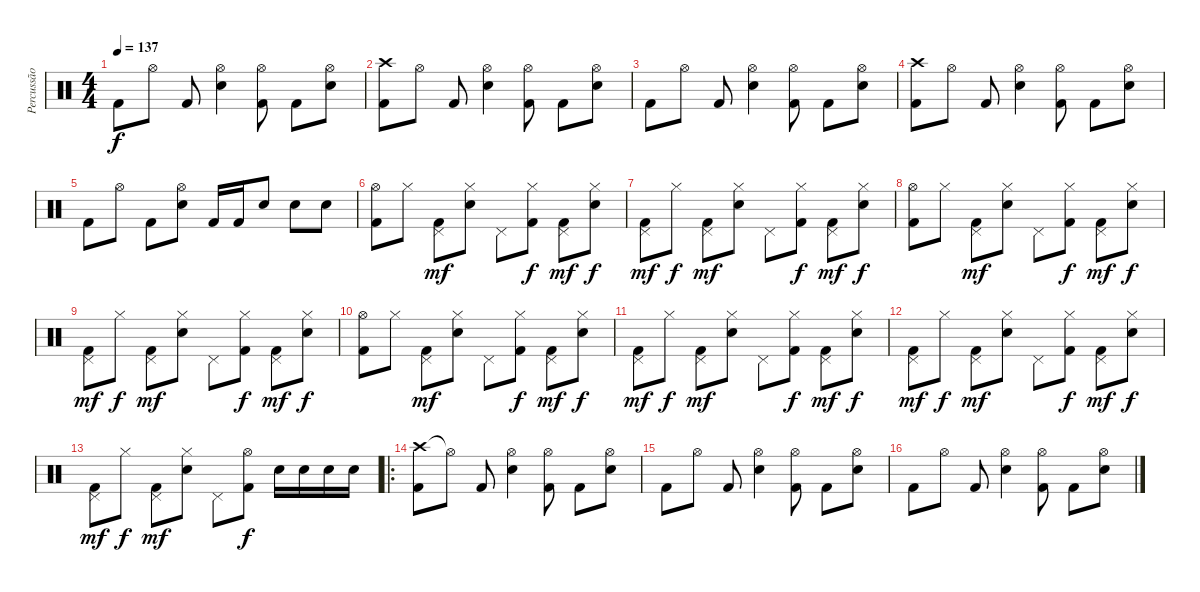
\track ("Percussão" "Percussão") {instrument percussion}
\staff {score}
\articulation defaults
\ts (4 4)
\tempo 137
\clef neutral
\ks c "Kick (hit) 2".8{dy f} "Hi-Hat (open)".8 "Kick (hit) 2".8
("Hi-Hat (open)" "Electric Snare (hit)").4 ("Hi-Hat (open)" "Kick (hit) 2").8 "Kick (hit) 2".8 ("Hi-Hat (open)" "Electric Snare (hit)").8 |
("Crash high (hit)" "Kick (hit) 2").8 "Hi-Hat (open)".8 "Kick (hit) 2".8 ("Hi-Hat (open)" "Electric Snare (hit)").4 ("Hi-Hat (open)" "Kick (hit) 2").8 "Kick (hit) 2".8 ("Hi-Hat (open)" "Electric Snare (hit)").8 |
"Kick (hit) 2".8 "Hi-Hat (open)".8 "Kick (hit) 2".8 ("Hi-Hat (open)" "Electric Snare (hit)").4 ("Hi-Hat (open)" "Kick (hit) 2").8 "Kick (hit) 2".8 ("Hi-Hat (open)" "Electric Snare (hit)").8 |
("Crash high (hit)" "Kick (hit) 2").8 "Hi-Hat (open)".8 "Kick (hit) 2".8 ("Hi-Hat (open)" "Electric Snare (hit)").4 ("Hi-Hat (open)" "Kick (hit) 2").8 "Kick (hit) 2".8 ("Hi-Hat (open)" "Electric Snare (hit)").8 |
"Kick (hit) 2".8 "Hi-Hat (open)".8 "Kick (hit) 2".8 ("Hi-Hat (open)" "Electric Snare (hit)").8 "Kick (hit) 2".16 "Kick (hit) 2".16 "Electric Snare (hit)".8 "Electric Snare (hit)".8 "Electric Snare (hit)".8 |
("Hi-Hat (open)" "Kick (hit) 2").8 "Hi-Hat (closed)".8 ("Pedal Hi-Hat (hit)" "Kick (hit) 2").8{dy mf} ("Hi-Hat (closed)" "Electric Snare (hit)").8 "Pedal Hi-Hat (hit)".8 ("Hi-Hat (closed)" "Kick (hit) 2").8{dy f} ("Pedal Hi-Hat (hit)" "Kick (hit) 2").8{dy mf} ("Hi-Hat (closed)" "Electric Snare (hit)").8{dy f} |
("Pedal Hi-Hat (hit)" "Kick (hit) 2").8{dy mf} "Hi-Hat (closed)".8{dy f} ("Pedal Hi-Hat (hit)" "Kick (hit) 2").8{dy mf} ("Hi-Hat (closed)" "Electric Snare (hit)").8 "Pedal Hi-Hat (hit)".8 ("Hi-Hat (closed)" "Kick (hit) 2").8{dy f} ("Pedal Hi-Hat (hit)" "Kick (hit) 2").8{dy mf} ("Hi-Hat (closed)" "Electric Snare (hit)").8{dy f} |
("Hi-Hat (open)" "Kick (hit) 2").8 "Hi-Hat (closed)".8 ("Pedal Hi-Hat (hit)" "Kick (hit) 2").8{dy mf} ("Hi-Hat (closed)" "Electric Snare (hit)").8 "Pedal Hi-Hat (hit)".8 ("Hi-Hat (closed)" "Kick (hit) 2").8{dy f} ("Pedal Hi-Hat (hit)" "Kick (hit) 2").8{dy mf} ("Hi-Hat (closed)" "Electric Snare (hit)").8{dy f} |
("Pedal Hi-Hat (hit)" "Kick (hit) 2").8{dy mf} "Hi-Hat (closed)".8{dy f} ("Pedal Hi-Hat (hit)" "Kick (hit) 2").8{dy mf} ("Hi-Hat (closed)" "Electric Snare (hit)").8 "Pedal Hi-Hat (hit)".8 ("Hi-Hat (closed)" "Kick (hit) 2").8{dy f} ("Pedal Hi-Hat (hit)" "Kick (hit) 2").8{dy mf} ("Hi-Hat (closed)" "Electric Snare (hit)").8{dy f} |
("Hi-Hat (open)" "Kick (hit) 2").8 "Hi-Hat (closed)".8 ("Pedal Hi-Hat (hit)" "Kick (hit) 2").8{dy mf} ("Hi-Hat (closed)" "Electric Snare (hit)").8 "Pedal Hi-Hat (hit)".8 ("Hi-Hat (closed)" "Kick (hit) 2").8{dy f} ("Pedal Hi-Hat (hit)" "Kick (hit) 2").8{dy mf} ("Hi-Hat (closed)" "Electric Snare (hit)").8{dy f} |
("Pedal Hi-Hat (hit)" "Kick (hit) 2").8{dy mf} "Hi-Hat (closed)".8{dy f} ("Pedal Hi-Hat (hit)" "Kick (hit) 2").8{dy mf} ("Hi-Hat (closed)" "Electric Snare (hit)").8 "Pedal Hi-Hat (hit)".8 ("Hi-Hat (closed)" "Kick (hit) 2").8{dy f} ("Pedal Hi-Hat (hit)" "Kick (hit) 2").8{dy mf} ("Hi-Hat (closed)" "Electric Snare (hit)").8{dy f} |
("Pedal Hi-Hat (hit)" "Kick (hit) 2").8{dy mf} "Hi-Hat (closed)".8{dy f} ("Pedal Hi-Hat (hit)" "Kick (hit) 2").8{dy mf} ("Hi-Hat (closed)" "Electric Snare (hit)").8 "Pedal Hi-Hat (hit)".8 ("Hi-Hat (closed)" "Kick (hit) 2").8{dy f} ("Pedal Hi-Hat (hit)" "Kick (hit) 2").8{dy mf} ("Hi-Hat (closed)" "Electric Snare (hit)").8{dy f} |
("Pedal Hi-Hat (hit)" "Kick (hit) 2").8{dy mf} "Hi-Hat (closed)".8{dy f} ("Pedal Hi-Hat (hit)" "Kick (hit) 2").8{dy mf} ("Hi-Hat (closed)" "Electric Snare (hit)").8 "Pedal Hi-Hat (hit)".8 ("Hi-Hat (open)" "Kick (hit) 2").8{dy f} "Electric Snare (hit)".16 "Electric Snare (hit)".16 "Electric Snare (hit)".16 "Electric Snare (hit)".16 |
\ro
("Crash high (hit)" "Kick (hit) 2").8 "Hi-Hat (open)"{t}.8 "Kick (hit) 2".8 ("Hi-Hat (open)" "Electric Snare (hit)").4 ("Hi-Hat (open)" "Kick (hit) 2").8 "Kick (hit) 2".8 ("Hi-Hat (open)" "Electric Snare (hit)").8 |
"Kick (hit) 2".8 "Hi-Hat (open)".8 "Kick (hit) 2".8 ("Hi-Hat (open)" "Electric Snare (hit)").4 ("Hi-Hat (open)" "Kick (hit) 2").8 "Kick (hit) 2".8 ("Hi-Hat (open)" "Electric Snare (hit)").8 |
"Kick (hit) 2".8 "Hi-Hat (open)".8 "Kick (hit) 2".8 ("Hi-Hat (open)" "Electric Snare (hit)").4 ("Hi-Hat (open)" "Kick (hit) 2").8 "Kick (hit) 2".8 ("Hi-Hat (open)" "Electric Snare (hit)").8
